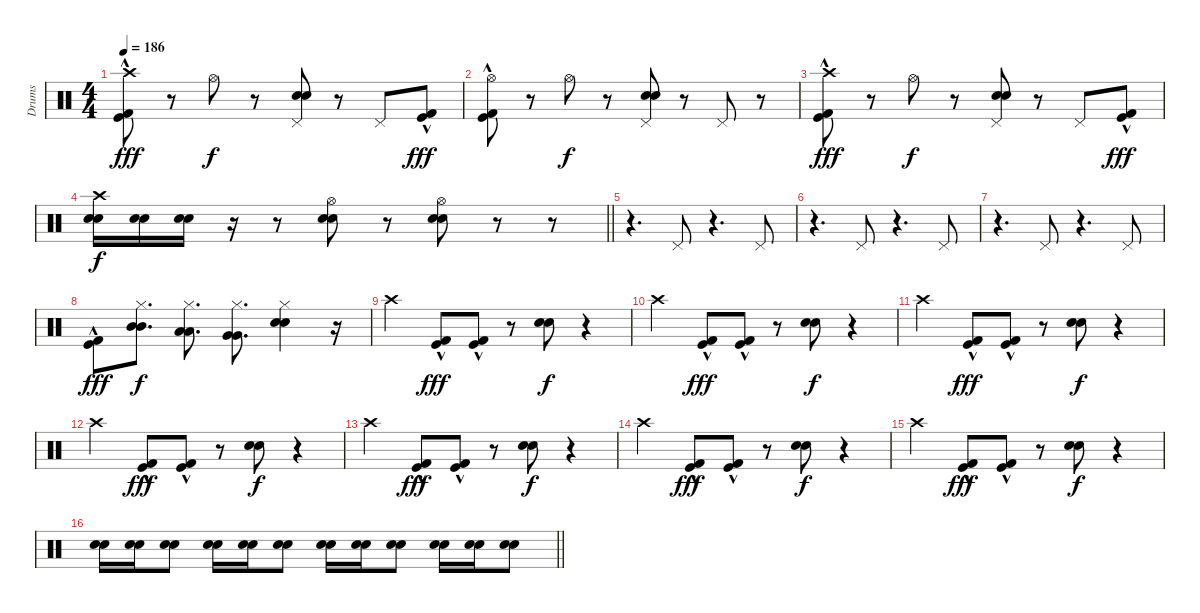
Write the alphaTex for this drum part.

\track ("Drums" "Drums") {instrument percussion}
\staff {score}
\articulation defaults
\ts (4 4)
\tempo 186
\clef neutral
\ks c
("Crash high (hit)" "Kick (hit)"{hac} "Kick (hit) 2"{hac}).8{dy fff} r.8 "Hi-Hat (open)".8{dy f} r.8 ("Pedal Hi-Hat (hit)" "Snare (hit) 2" "Snare (hit) 2").8 r.8 "Pedal Hi-Hat (hit)".8 ("Kick (hit)"{hac} "Kick (hit) 2"{hac}).8{dy fff} |
("Hi-Hat (open)" "Kick (hit)"{hac} "Kick (hit) 2"{hac}).8 r.8 "Hi-Hat (open)".8{dy f} r.8 ("Pedal Hi-Hat (hit)" "Snare (hit) 2" "Snare (hit) 2").8 r.8 "Pedal Hi-Hat (hit)".8 r.8 |
("Crash high (hit)" "Kick (hit)"{hac} "Kick (hit) 2"{hac}).8{dy fff} r.8 "Hi-Hat (open)".8{dy f} r.8 ("Pedal Hi-Hat (hit)" "Snare (hit) 2" "Snare (hit) 2").8 r.8 "Pedal Hi-Hat (hit)".8 ("Kick (hit)"{hac} "Kick (hit) 2"{hac}).8{dy fff} |
\barLineRight lightlight
("Crash high (hit)" "Snare (hit) 2" "Snare (hit) 2").16{dy f} ("Snare (hit) 2" "Snare (hit) 2").16 ("Snare (hit) 2" "Snare (hit) 2").16 r.16 r.8 ("Hi-Hat (open)" "Snare (hit) 2" "Snare (hit) 2").8 r.8 ("Hi-Hat (open)" "Snare (hit) 2" "Snare (hit) 2").8 r.8 r.8 |
r.4{d} "Pedal Hi-Hat (hit)".8 r.4{d} "Pedal Hi-Hat (hit)".8 |
r.4{d} "Pedal Hi-Hat (hit)".8 r.4{d} "Pedal Hi-Hat (hit)".8 |
r.4{d} "Pedal Hi-Hat (hit)".8 r.4{d} "Pedal Hi-Hat (hit)".8 |
("Kick (hit)"{hac} "Kick (hit) 2"{hac}).8{dy fff} ("Hi-Hat (closed)" "Mid Tom (hit)" "Mid Tom (hit)").8{d dy f} ("Hi-Hat (closed)" "Low Tom (hit)" "Low Tom (hit)").8{d} ("Hi-Hat (closed)" "Very Low Tom (hit)" "Very Low Tom (hit)").8{d} ("Hi-Hat (closed)" "Snare (hit) 2" "Snare (hit) 2").4 r.16 |
"Crash high (hit)".4 ("Kick (hit)"{hac} "Kick (hit) 2"{hac}).8{dy fff} ("Kick (hit)"{hac} "Kick (hit) 2"{hac}).8 r.8 ("Snare (hit) 2" "Snare (hit) 2").8{dy f} r.4 |
"Crash high (hit)".4 ("Kick (hit)"{hac} "Kick (hit) 2"{hac}).8{dy fff} ("Kick (hit)"{hac} "Kick (hit) 2"{hac}).8 r.8 ("Snare (hit) 2" "Snare (hit) 2").8{dy f} r.4 |
"Crash high (hit)".4 ("Kick (hit)"{hac} "Kick (hit) 2"{hac}).8{dy fff} ("Kick (hit)"{hac} "Kick (hit) 2"{hac}).8 r.8 ("Snare (hit) 2" "Snare (hit) 2").8{dy f} r.4 |
"Crash high (hit)".4 ("Kick (hit)"{hac} "Kick (hit) 2"{hac}).8{dy fff} ("Kick (hit)"{hac} "Kick (hit) 2"{hac}).8 r.8 ("Snare (hit) 2" "Snare (hit) 2").8{dy f} r.4 |
"Crash high (hit)".4 ("Kick (hit)"{hac} "Kick (hit) 2"{hac}).8{dy fff} ("Kick (hit)"{hac} "Kick (hit) 2"{hac}).8 r.8 ("Snare (hit) 2" "Snare (hit) 2").8{dy f} r.4 |
"Crash high (hit)".4 ("Kick (hit)"{hac} "Kick (hit) 2"{hac}).8{dy fff} ("Kick (hit)"{hac} "Kick (hit) 2"{hac}).8 r.8 ("Snare (hit) 2" "Snare (hit) 2").8{dy f} r.4 |
"Crash high (hit)".4 ("Kick (hit)"{hac} "Kick (hit) 2"{hac}).8{dy fff} ("Kick (hit)"{hac} "Kick (hit) 2"{hac}).8 r.8 ("Snare (hit) 2" "Snare (hit) 2").8{dy f} r.4 |
\barLineRight lightlight
("Snare (hit) 2" "Snare (hit) 2").16 ("Snare (hit) 2" "Snare (hit) 2").16 ("Snare (hit) 2" "Snare (hit) 2").8 ("Snare (hit) 2" "Snare (hit) 2").16 ("Snare (hit) 2" "Snare (hit) 2").16 ("Snare (hit) 2" "Snare (hit) 2").8 ("Snare (hit) 2" "Snare (hit) 2").16 ("Snare (hit) 2" "Snare (hit) 2").16 ("Snare (hit) 2" "Snare (hit) 2").8 ("Snare (hit) 2" "Snare (hit) 2").16 ("Snare (hit) 2" "Snare (hit) 2").16 ("Snare (hit) 2" "Snare (hit) 2").8
